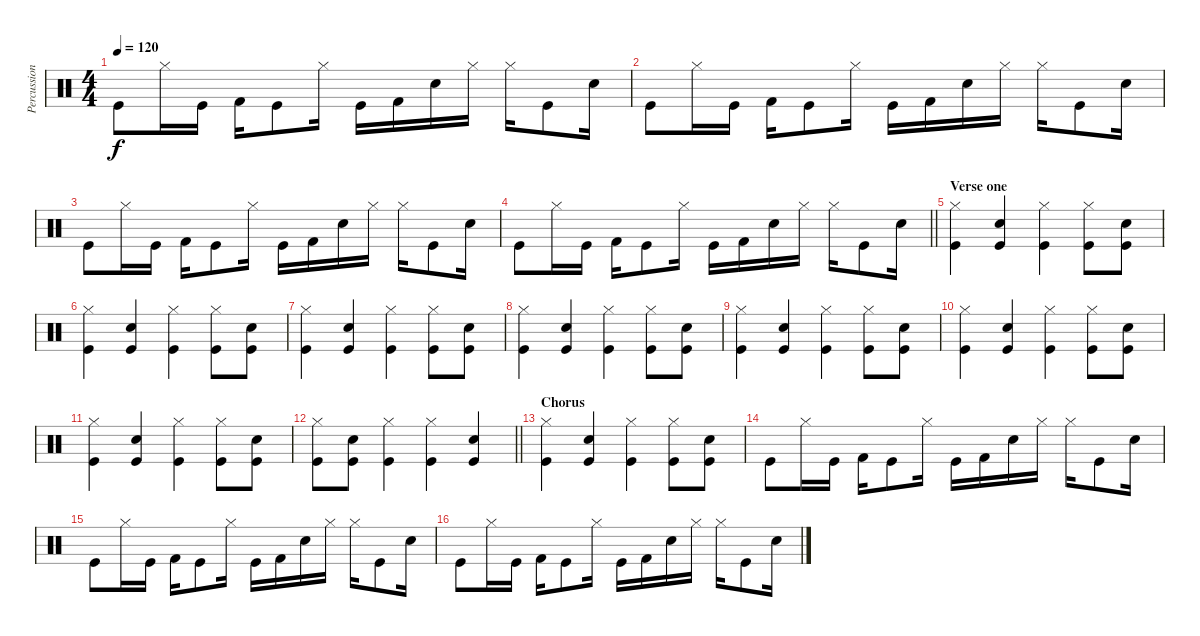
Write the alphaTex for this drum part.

\track ("Percussion" "Percussion") {instrument percussion}
\staff {score}
\articulation defaults
\ts (4 4)
\tempo 120
\clef neutral
\ks c "Kick (hit)".8{dy f} "Hi-Hat (closed)".16 "Kick (hit)".16 "Kick (hit) 2".16 "Kick (hit)".8 "Hi-Hat (closed)".16 "Kick (hit)".16 "Kick (hit) 2".16 "Snare (hit) 2".16 "Hi-Hat (closed)".16 "Hi-Hat (closed)".16 "Kick (hit)".8 "Snare (hit) 2".16
|
"Kick (hit)".8 "Hi-Hat (closed)".16 "Kick (hit)".16 "Kick (hit) 2".16 "Kick (hit)".8 "Hi-Hat (closed)".16 "Kick (hit)".16 "Kick (hit) 2".16 "Snare (hit) 2".16 "Hi-Hat (closed)".16 "Hi-Hat (closed)".16 "Kick (hit)".8 "Snare (hit) 2".16 |
"Kick (hit)".8 "Hi-Hat (closed)".16 "Kick (hit)".16 "Kick (hit) 2".16 "Kick (hit)".8 "Hi-Hat (closed)".16 "Kick (hit)".16 "Kick (hit) 2".16 "Snare (hit) 2".16 "Hi-Hat (closed)".16 "Hi-Hat (closed)".16 "Kick (hit)".8 "Snare (hit) 2".16 |
\barLineRight lightlight "Kick (hit)".8 "Hi-Hat (closed)".16 "Kick (hit)".16 "Kick (hit) 2".16 "Kick (hit)".8 "Hi-Hat (closed)".16 "Kick (hit)".16 "Kick (hit) 2".16 "Snare (hit) 2".16 "Hi-Hat (closed)".16 "Hi-Hat (closed)".16 "Kick (hit)".8 "Snare (hit) 2".16
|
\section ("" "Verse one")
("Hi-Hat (closed)" "Kick (hit)").4 ("Snare (hit) 2" "Kick (hit)").4 ("Hi-Hat (closed)" "Kick (hit)").4 ("Hi-Hat (closed)" "Kick (hit)").8 ("Snare (hit) 2" "Kick (hit)").8 |
("Hi-Hat (closed)" "Kick (hit)").4 ("Snare (hit) 2" "Kick (hit)").4 ("Hi-Hat (closed)" "Kick (hit)").4 ("Hi-Hat (closed)" "Kick (hit)").8 ("Snare (hit) 2" "Kick (hit)").8 |
("Hi-Hat (closed)" "Kick (hit)").4 ("Snare (hit) 2" "Kick (hit)").4 ("Hi-Hat (closed)" "Kick (hit)").4 ("Hi-Hat (closed)" "Kick (hit)").8 ("Snare (hit) 2" "Kick (hit)").8 |
("Hi-Hat (closed)" "Kick (hit)").4 ("Snare (hit) 2" "Kick (hit)").4 ("Hi-Hat (closed)" "Kick (hit)").4 ("Hi-Hat (closed)" "Kick (hit)").8 ("Snare (hit) 2" "Kick (hit)").8 |
("Hi-Hat (closed)" "Kick (hit)").4 ("Snare (hit) 2" "Kick (hit)").4 ("Hi-Hat (closed)" "Kick (hit)").4 ("Hi-Hat (closed)" "Kick (hit)").8 ("Snare (hit) 2" "Kick (hit)").8 |
("Hi-Hat (closed)" "Kick (hit)").4 ("Snare (hit) 2" "Kick (hit)").4 ("Hi-Hat (closed)" "Kick (hit)").4 ("Hi-Hat (closed)" "Kick (hit)").8 ("Snare (hit) 2" "Kick (hit)").8 |
("Hi-Hat (closed)" "Kick (hit)").4 ("Snare (hit) 2" "Kick (hit)").4 ("Hi-Hat (closed)" "Kick (hit)").4 ("Hi-Hat (closed)" "Kick (hit)").8 ("Snare (hit) 2" "Kick (hit)").8 |
\barLineRight lightlight
("Hi-Hat (closed)" "Kick (hit)").8 ("Snare (hit) 2" "Kick (hit)").8 ("Hi-Hat (closed)" "Kick (hit)").4 ("Hi-Hat (closed)" "Kick (hit)").4 ("Snare (hit) 2" "Kick (hit)").4 |
\section ("" "Chorus")
("Hi-Hat (closed)" "Kick (hit)").4 ("Snare (hit) 2" "Kick (hit)").4 ("Hi-Hat (closed)" "Kick (hit)").4 ("Hi-Hat (closed)" "Kick (hit)").8 ("Snare (hit) 2" "Kick (hit)").8 |
"Kick (hit)".8 "Hi-Hat (closed)".16 "Kick (hit)".16 "Kick (hit) 2".16 "Kick (hit)".8 "Hi-Hat (closed)".16 "Kick (hit)".16 "Kick (hit) 2".16 "Snare (hit) 2".16 "Hi-Hat (closed)".16 "Hi-Hat (closed)".16 "Kick (hit)".8 "Snare (hit) 2".16 |
"Kick (hit)".8 "Hi-Hat (closed)".16 "Kick (hit)".16 "Kick (hit) 2".16 "Kick (hit)".8 "Hi-Hat (closed)".16 "Kick (hit)".16 "Kick (hit) 2".16 "Snare (hit) 2".16 "Hi-Hat (closed)".16 "Hi-Hat (closed)".16 "Kick (hit)".8 "Snare (hit) 2".16 |
"Kick (hit)".8 "Hi-Hat (closed)".16 "Kick (hit)".16 "Kick (hit) 2".16 "Kick (hit)".8 "Hi-Hat (closed)".16 "Kick (hit)".16 "Kick (hit) 2".16 "Snare (hit) 2".16 "Hi-Hat (closed)".16 "Hi-Hat (closed)".16 "Kick (hit)".8 "Snare (hit) 2".16
